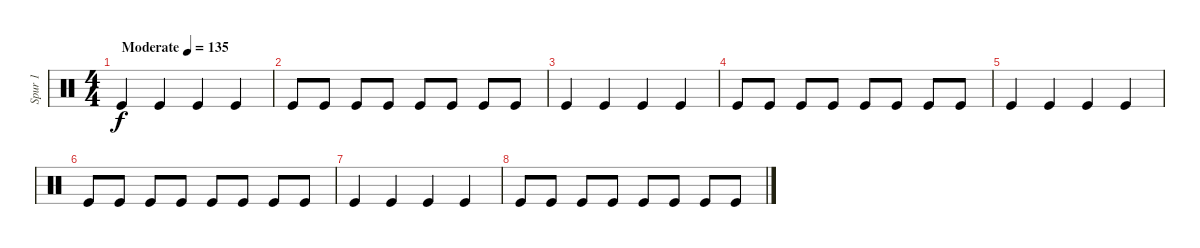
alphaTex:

\track ("Spur 1" "Spur 1") {instrument percussion}
\staff {score}
\articulation defaults
\ts (4 4)
\tempo (135 "Moderate")
\clef neutral
\ks c "Kick (hit)".4{dy f} "Kick (hit)".4 "Kick (hit)".4 "Kick (hit)".4
|
"Kick (hit)".8 "Kick (hit)".8 "Kick (hit)".8 "Kick (hit)".8 "Kick (hit)".8 "Kick (hit)".8 "Kick (hit)".8 "Kick (hit)".8 |
"Kick (hit)".4 "Kick (hit)".4 "Kick (hit)".4 "Kick (hit)".4 |
"Kick (hit)".8 "Kick (hit)".8 "Kick (hit)".8 "Kick (hit)".8 "Kick (hit)".8 "Kick (hit)".8 "Kick (hit)".8 "Kick (hit)".8 |
"Kick (hit)".4 "Kick (hit)".4 "Kick (hit)".4 "Kick (hit)".4 |
"Kick (hit)".8 "Kick (hit)".8 "Kick (hit)".8 "Kick (hit)".8 "Kick (hit)".8 "Kick (hit)".8 "Kick (hit)".8 "Kick (hit)".8 |
"Kick (hit)".4 "Kick (hit)".4 "Kick (hit)".4 "Kick (hit)".4 |
"Kick (hit)".8 "Kick (hit)".8 "Kick (hit)".8 "Kick (hit)".8 "Kick (hit)".8 "Kick (hit)".8 "Kick (hit)".8 "Kick (hit)".8
